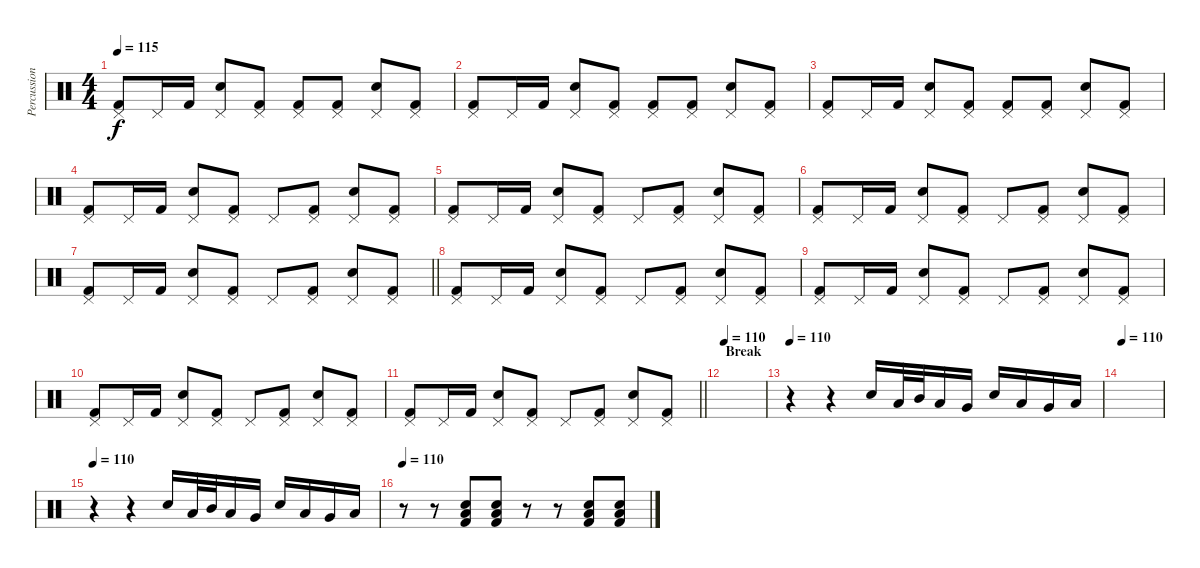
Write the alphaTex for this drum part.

\track ("Percussion" "Percussion") {instrument percussion}
\staff {score}
\articulation defaults
\ts (4 4)
\tempo 115
\clef neutral
\ks c
("Pedal Hi-Hat (hit)" "Kick (hit) 2").8{dy f} "Pedal Hi-Hat (hit)".16 "Kick (hit) 2".16 ("Pedal Hi-Hat (hit)" "Electric Snare (hit)").8 ("Pedal Hi-Hat (hit)" "Kick (hit) 2").8 ("Pedal Hi-Hat (hit)" "Kick (hit) 2").8 ("Pedal Hi-Hat (hit)" "Kick (hit) 2").8 ("Pedal Hi-Hat (hit)" "Electric Snare (hit)").8 ("Pedal Hi-Hat (hit)" "Kick (hit) 2").8 |
("Pedal Hi-Hat (hit)" "Kick (hit) 2").8 "Pedal Hi-Hat (hit)".16 "Kick (hit) 2".16 ("Pedal Hi-Hat (hit)" "Electric Snare (hit)").8 ("Pedal Hi-Hat (hit)" "Kick (hit) 2").8 ("Pedal Hi-Hat (hit)" "Kick (hit) 2").8 ("Pedal Hi-Hat (hit)" "Kick (hit) 2").8 ("Pedal Hi-Hat (hit)" "Electric Snare (hit)").8 ("Pedal Hi-Hat (hit)" "Kick (hit) 2").8 |
("Pedal Hi-Hat (hit)" "Kick (hit) 2").8 "Pedal Hi-Hat (hit)".16 "Kick (hit) 2".16 ("Pedal Hi-Hat (hit)" "Electric Snare (hit)").8 ("Pedal Hi-Hat (hit)" "Kick (hit) 2").8 ("Pedal Hi-Hat (hit)" "Kick (hit) 2").8 ("Pedal Hi-Hat (hit)" "Kick (hit) 2").8 ("Pedal Hi-Hat (hit)" "Electric Snare (hit)").8 ("Pedal Hi-Hat (hit)" "Kick (hit) 2").8 |
("Pedal Hi-Hat (hit)" "Kick (hit) 2").8 "Pedal Hi-Hat (hit)".16 "Kick (hit) 2".16 ("Pedal Hi-Hat (hit)" "Electric Snare (hit)").8 ("Pedal Hi-Hat (hit)" "Kick (hit) 2").8 "Pedal Hi-Hat (hit)".8 ("Pedal Hi-Hat (hit)" "Kick (hit) 2").8 ("Pedal Hi-Hat (hit)" "Electric Snare (hit)").8 ("Pedal Hi-Hat (hit)" "Kick (hit) 2").8 |
("Pedal Hi-Hat (hit)" "Kick (hit) 2").8 "Pedal Hi-Hat (hit)".16 "Kick (hit) 2".16 ("Pedal Hi-Hat (hit)" "Electric Snare (hit)").8 ("Pedal Hi-Hat (hit)" "Kick (hit) 2").8 "Pedal Hi-Hat (hit)".8 ("Pedal Hi-Hat (hit)" "Kick (hit) 2").8 ("Pedal Hi-Hat (hit)" "Electric Snare (hit)").8 ("Pedal Hi-Hat (hit)" "Kick (hit) 2").8 |
("Pedal Hi-Hat (hit)" "Kick (hit) 2").8 "Pedal Hi-Hat (hit)".16 "Kick (hit) 2".16 ("Pedal Hi-Hat (hit)" "Electric Snare (hit)").8 ("Pedal Hi-Hat (hit)" "Kick (hit) 2").8 "Pedal Hi-Hat (hit)".8 ("Pedal Hi-Hat (hit)" "Kick (hit) 2").8 ("Pedal Hi-Hat (hit)" "Electric Snare (hit)").8 ("Pedal Hi-Hat (hit)" "Kick (hit) 2").8 |
\barLineRight lightlight
("Pedal Hi-Hat (hit)" "Kick (hit) 2").8 "Pedal Hi-Hat (hit)".16 "Kick (hit) 2".16 ("Pedal Hi-Hat (hit)" "Electric Snare (hit)").8 ("Pedal Hi-Hat (hit)" "Kick (hit) 2").8 "Pedal Hi-Hat (hit)".8 ("Pedal Hi-Hat (hit)" "Kick (hit) 2").8 ("Pedal Hi-Hat (hit)" "Electric Snare (hit)").8 ("Pedal Hi-Hat (hit)" "Kick (hit) 2").8 |
("Pedal Hi-Hat (hit)" "Kick (hit) 2").8 "Pedal Hi-Hat (hit)".16 "Kick (hit) 2".16 ("Pedal Hi-Hat (hit)" "Electric Snare (hit)").8 ("Pedal Hi-Hat (hit)" "Kick (hit) 2").8 "Pedal Hi-Hat (hit)".8 ("Pedal Hi-Hat (hit)" "Kick (hit) 2").8 ("Pedal Hi-Hat (hit)" "Electric Snare (hit)").8 ("Pedal Hi-Hat (hit)" "Kick (hit) 2").8 |
("Pedal Hi-Hat (hit)" "Kick (hit) 2").8 "Pedal Hi-Hat (hit)".16 "Kick (hit) 2".16 ("Pedal Hi-Hat (hit)" "Electric Snare (hit)").8 ("Pedal Hi-Hat (hit)" "Kick (hit) 2").8 "Pedal Hi-Hat (hit)".8 ("Pedal Hi-Hat (hit)" "Kick (hit) 2").8 ("Pedal Hi-Hat (hit)" "Electric Snare (hit)").8 ("Pedal Hi-Hat (hit)" "Kick (hit) 2").8 |
("Pedal Hi-Hat (hit)" "Kick (hit) 2").8 "Pedal Hi-Hat (hit)".16 "Kick (hit) 2".16 ("Pedal Hi-Hat (hit)" "Electric Snare (hit)").8 ("Pedal Hi-Hat (hit)" "Kick (hit) 2").8 "Pedal Hi-Hat (hit)".8 ("Pedal Hi-Hat (hit)" "Kick (hit) 2").8 ("Pedal Hi-Hat (hit)" "Electric Snare (hit)").8 ("Pedal Hi-Hat (hit)" "Kick (hit) 2").8 |
\barLineRight lightlight
("Pedal Hi-Hat (hit)" "Kick (hit) 2").8 "Pedal Hi-Hat (hit)".16 "Kick (hit) 2".16 ("Pedal Hi-Hat (hit)" "Electric Snare (hit)").8 ("Pedal Hi-Hat (hit)" "Kick (hit) 2").8 "Pedal Hi-Hat (hit)".8 ("Pedal Hi-Hat (hit)" "Kick (hit) 2").8 ("Pedal Hi-Hat (hit)" "Electric Snare (hit)").8 ("Pedal Hi-Hat (hit)" "Kick (hit) 2").8 |
\section ("" "Break")
\tempo 110
|
\tempo 110
r.4 r.4 "Snare (hit) 2".16 "Low Tom (hit)".32 "Mid Tom (hit)".32 "Low Tom (hit)".16 "Very Low Tom (hit)".16 "Snare (hit) 2".16 "Low Tom (hit)".16 "Very Low Tom (hit)".16 "Low Floor Tom (hit)".16 |
\tempo 110
|
\tempo 110
r.4 r.4 "Snare (hit) 2".16 "Low Tom (hit)".32 "Mid Tom (hit)".32 "Low Tom (hit)".16 "Very Low Tom (hit)".16 "Snare (hit) 2".16 "Low Tom (hit)".16 "Very Low Tom (hit)".16 "Low Floor Tom (hit)".16 |
\tempo 110
r.8 r.8 ("Low Floor Tom (hit)" "Electric Snare (hit)" "Kick (hit) 2").8 ("Low Floor Tom (hit)" "Electric Snare (hit)" "Kick (hit) 2").8 r.8 r.8 ("Low Floor Tom (hit)" "Electric Snare (hit)" "Kick (hit) 2").8 ("Low Floor Tom (hit)" "Electric Snare (hit)" "Kick (hit) 2").8
